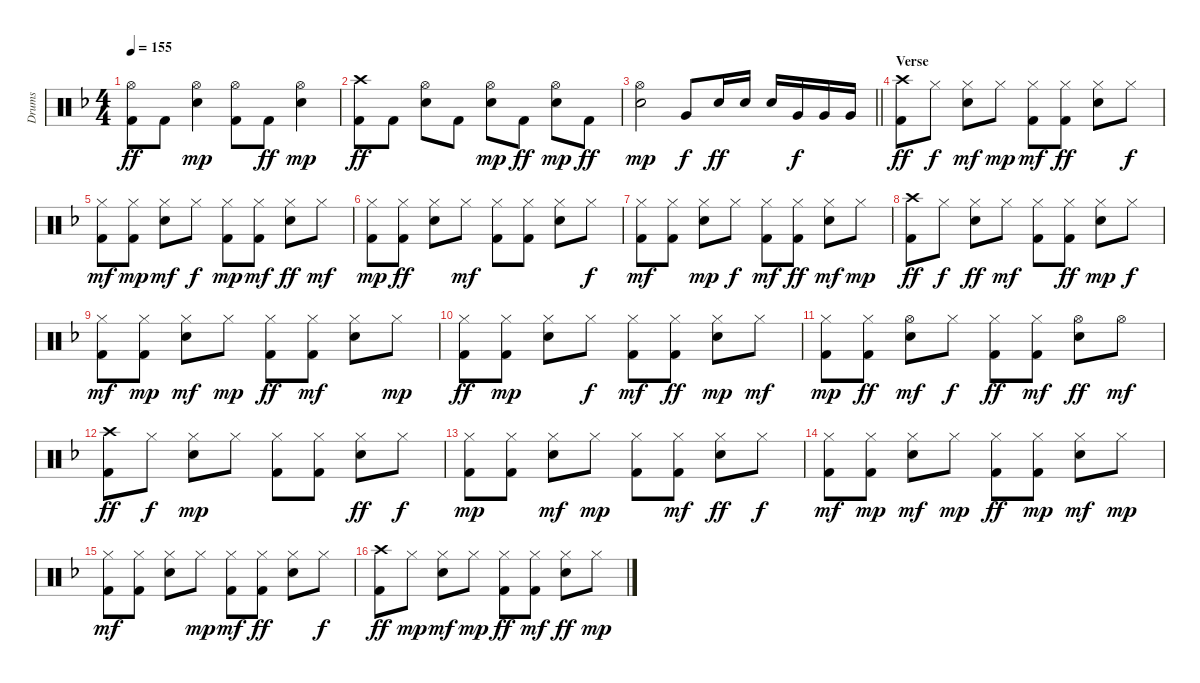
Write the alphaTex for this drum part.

\track ("Drums" "Drums") {instrument percussion}
\staff {score}
\articulation defaults
\ts (4 4)
\tempo 155
\clef neutral
\ks f
("Kick (hit) 2" "Hi-Hat (open)").8{dy ff} "Kick (hit) 2".8 ("Snare (hit) 2" "Hi-Hat (open)").4{dy mp} ("Kick (hit) 2" "Hi-Hat (open)").8 "Kick (hit) 2".8{dy ff} ("Snare (hit) 2" "Hi-Hat (open)").4{dy mp} |
("Kick (hit) 2" "Crash high (hit)").8{dy ff} "Kick (hit) 2".8 ("Snare (hit) 2" "Hi-Hat (open)").8 "Kick (hit) 2".8 ("Snare (hit) 2" "Hi-Hat (open)").8{dy mp} "Kick (hit) 2".8{dy ff} ("Snare (hit) 2" "Hi-Hat (open)").8{dy mp} "Kick (hit) 2".8{dy ff} |
\barLineRight lightlight
("Snare (hit) 2" "Hi-Hat (open)").2{dy mp} "Very Low Tom (hit)".8{dy f} "Snare (hit) 2".16{dy ff} "Snare (hit) 2".16 "Snare (hit) 2".16 "Very Low Tom (hit)".16{dy f} "Very Low Tom (hit)".16 "Very Low Tom (hit)".16 |
\section ("" "Verse")
("Kick (hit) 2" "Crash high (hit)").8{dy ff} "Hi-Hat (closed)".8{dy f} ("Snare (hit) 2" "Hi-Hat (closed)").8{dy mf} "Hi-Hat (closed)".8{dy mp} ("Kick (hit) 2" "Hi-Hat (closed)").8{dy mf} ("Kick (hit) 2" "Hi-Hat (closed)").8{dy ff} ("Snare (hit) 2" "Hi-Hat (closed)").8 "Hi-Hat (closed)".8{dy f} |
("Kick (hit) 2" "Hi-Hat (closed)").8{dy mf} ("Kick (hit) 2" "Hi-Hat (closed)").8{dy mp} ("Snare (hit) 2" "Hi-Hat (closed)").8{dy mf} "Hi-Hat (closed)".8{dy f} ("Kick (hit) 2" "Hi-Hat (closed)").8{dy mp} ("Kick (hit) 2" "Hi-Hat (closed)").8{dy mf} ("Snare (hit) 2" "Hi-Hat (closed)").8{dy ff} "Hi-Hat (closed)".8{dy mf} |
("Kick (hit) 2" "Hi-Hat (closed)").8{dy mp} ("Kick (hit) 2" "Hi-Hat (closed)").8{dy ff} ("Snare (hit) 2" "Hi-Hat (closed)").8 "Hi-Hat (closed)".8{dy mf} ("Kick (hit) 2" "Hi-Hat (closed)").8 ("Kick (hit) 2" "Hi-Hat (closed)").8 ("Snare (hit) 2" "Hi-Hat (closed)").8 "Hi-Hat (closed)".8{dy f} |
("Kick (hit) 2" "Hi-Hat (closed)").8{dy mf} ("Kick (hit) 2" "Hi-Hat (closed)").8 ("Snare (hit) 2" "Hi-Hat (closed)").8{dy mp} "Hi-Hat (closed)".8{dy f} ("Kick (hit) 2" "Hi-Hat (closed)").8{dy mf} ("Kick (hit) 2" "Hi-Hat (closed)").8{dy ff} ("Snare (hit) 2" "Hi-Hat (closed)").8{dy mf} "Hi-Hat (closed)".8{dy mp} |
("Kick (hit) 2" "Crash high (hit)").8{dy ff} "Hi-Hat (closed)".8{dy f} ("Snare (hit) 2" "Hi-Hat (closed)").8{dy ff} "Hi-Hat (closed)".8{dy mf} ("Kick (hit) 2" "Hi-Hat (closed)").8 ("Kick (hit) 2" "Hi-Hat (closed)").8{dy ff} ("Snare (hit) 2" "Hi-Hat (closed)").8{dy mp} "Hi-Hat (closed)".8{dy f} |
("Kick (hit) 2" "Hi-Hat (closed)").8{dy mf} ("Kick (hit) 2" "Hi-Hat (closed)").8{dy mp} ("Snare (hit) 2" "Hi-Hat (closed)").8{dy mf} "Hi-Hat (closed)".8{dy mp} ("Kick (hit) 2" "Hi-Hat (closed)").8{dy ff} ("Kick (hit) 2" "Hi-Hat (closed)").8{dy mf} ("Snare (hit) 2" "Hi-Hat (closed)").8 "Hi-Hat (closed)".8{dy mp} |
("Kick (hit) 2" "Hi-Hat (closed)").8{dy ff} ("Kick (hit) 2" "Hi-Hat (closed)").8{dy mp} ("Snare (hit) 2" "Hi-Hat (closed)").8 "Hi-Hat (closed)".8{dy f} ("Kick (hit) 2" "Hi-Hat (closed)").8{dy mf} ("Kick (hit) 2" "Hi-Hat (closed)").8{dy ff} ("Snare (hit) 2" "Hi-Hat (closed)").8{dy mp} "Hi-Hat (closed)".8{dy mf} |
("Kick (hit) 2" "Hi-Hat (closed)").8{dy mp} ("Kick (hit) 2" "Hi-Hat (closed)").8{dy ff} ("Snare (hit) 2" "Hi-Hat (open)").8{dy mf} "Hi-Hat (closed)".8{dy f} ("Kick (hit) 2" "Hi-Hat (closed)").8{dy ff} ("Kick (hit) 2" "Hi-Hat (closed)").8{dy mf} ("Snare (hit) 2" "Hi-Hat (open)").8{dy ff} "Hi-Hat (open)".8{dy mf} |
("Kick (hit) 2" "Crash high (hit)").8{dy ff} "Hi-Hat (closed)".8{dy f} ("Snare (hit) 2" "Hi-Hat (closed)").8{dy mp} "Hi-Hat (closed)".8 ("Kick (hit) 2" "Hi-Hat (closed)").8 ("Kick (hit) 2" "Hi-Hat (closed)").8 ("Snare (hit) 2" "Hi-Hat (closed)").8{dy ff} "Hi-Hat (closed)".8{dy f} |
("Kick (hit) 2" "Hi-Hat (closed)").8{dy mp} ("Kick (hit) 2" "Hi-Hat (closed)").8 ("Snare (hit) 2" "Hi-Hat (closed)").8{dy mf} "Hi-Hat (closed)".8{dy mp} ("Kick (hit) 2" "Hi-Hat (closed)").8 ("Kick (hit) 2" "Hi-Hat (closed)").8{dy mf} ("Snare (hit) 2" "Hi-Hat (closed)").8{dy ff} "Hi-Hat (closed)".8{dy f} |
("Kick (hit) 2" "Hi-Hat (closed)").8{dy mf} ("Kick (hit) 2" "Hi-Hat (closed)").8{dy mp} ("Snare (hit) 2" "Hi-Hat (closed)").8{dy mf} "Hi-Hat (closed)".8{dy mp} ("Kick (hit) 2" "Hi-Hat (closed)").8{dy ff} ("Kick (hit) 2" "Hi-Hat (closed)").8{dy mp} ("Snare (hit) 2" "Hi-Hat (closed)").8{dy mf} "Hi-Hat (closed)".8{dy mp} |
("Kick (hit) 2" "Hi-Hat (closed)").8{dy mf} ("Kick (hit) 2" "Hi-Hat (closed)").8 ("Snare (hit) 2" "Hi-Hat (closed)").8 "Hi-Hat (closed)".8{dy mp} ("Kick (hit) 2" "Hi-Hat (closed)").8{dy mf} ("Kick (hit) 2" "Hi-Hat (closed)").8{dy ff} ("Snare (hit) 2" "Hi-Hat (closed)").8 "Hi-Hat (closed)".8{dy f} |
("Kick (hit) 2" "Crash high (hit)").8{dy ff} "Hi-Hat (closed)".8{dy mp} ("Snare (hit) 2" "Hi-Hat (closed)").8{dy mf} "Hi-Hat (closed)".8{dy mp} ("Kick (hit) 2" "Hi-Hat (closed)").8{dy ff} ("Kick (hit) 2" "Hi-Hat (closed)").8{dy mf} ("Snare (hit) 2" "Hi-Hat (closed)").8{dy ff} "Hi-Hat (closed)".8{dy mp}
